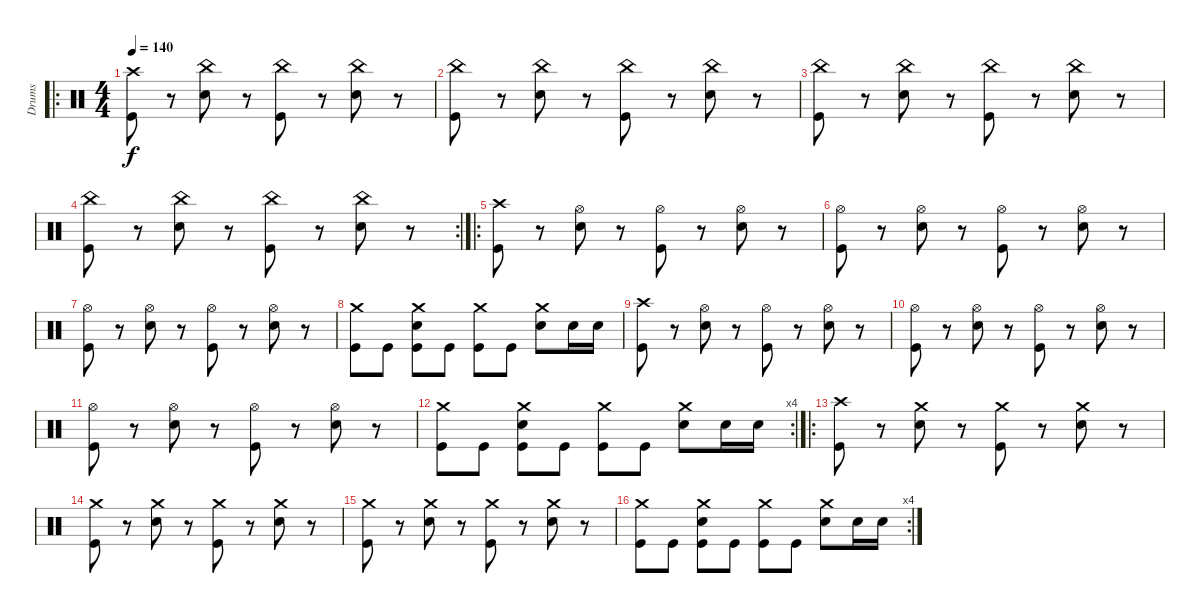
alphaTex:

\track ("Drums" "Drums") {instrument percussion}
\staff {score}
\articulation defaults
\ro
\ts (4 4)
\tempo 140
\clef neutral
\ks c
("Crash high (hit)" "Kick (hit)").8{dy f} r.8 ("China (hit)" "Snare (hit) 2").8 r.8 ("China (hit)" "Kick (hit)").8 r.8 ("China (hit)" "Snare (hit) 2").8 r.8 |
("China (hit)" "Kick (hit)").8 r.8 ("China (hit)" "Snare (hit) 2").8 r.8 ("China (hit)" "Kick (hit)").8 r.8 ("China (hit)" "Snare (hit) 2").8 r.8 |
("China (hit)" "Kick (hit)").8 r.8 ("China (hit)" "Snare (hit) 2").8 r.8 ("China (hit)" "Kick (hit)").8 r.8 ("China (hit)" "Snare (hit) 2").8 r.8 |
\rc 2
("China (hit)" "Kick (hit)").8 r.8 ("China (hit)" "Snare (hit) 2").8 r.8 ("China (hit)" "Kick (hit)").8 r.8 ("China (hit)" "Snare (hit) 2").8 r.8 |
\ro
("Crash high (hit)" "Kick (hit)").8 r.8 ("Hi-Hat (open)" "Snare (hit) 2").8 r.8 ("Hi-Hat (open)" "Kick (hit)").8 r.8 ("Hi-Hat (open)" "Snare (hit) 2").8 r.8 |
("Hi-Hat (open)" "Kick (hit)").8 r.8 ("Hi-Hat (open)" "Snare (hit) 2").8 r.8 ("Hi-Hat (open)" "Kick (hit)").8 r.8 ("Hi-Hat (open)" "Snare (hit) 2").8 r.8 |
("Hi-Hat (open)" "Kick (hit)").8 r.8 ("Hi-Hat (open)" "Snare (hit) 2").8 r.8 ("Hi-Hat (open)" "Kick (hit)").8 r.8 ("Hi-Hat (open)" "Snare (hit) 2").8 r.8 |
("Crash medium (hit)" "Kick (hit)").8 "Kick (hit)".8 ("Crash medium (hit)" "Snare (hit) 2" "Kick (hit)").8 "Kick (hit)".8 ("Crash medium (hit)" "Kick (hit)").8 "Kick (hit)".8 ("Crash medium (hit)" "Snare (hit) 2").8 "Snare (hit) 2".16 "Snare (hit) 2".16 |
("Crash high (hit)" "Kick (hit)").8 r.8 ("Hi-Hat (open)" "Snare (hit) 2").8 r.8 ("Hi-Hat (open)" "Kick (hit)").8 r.8 ("Hi-Hat (open)" "Snare (hit) 2").8 r.8 |
("Hi-Hat (open)" "Kick (hit)").8 r.8 ("Hi-Hat (open)" "Snare (hit) 2").8 r.8 ("Hi-Hat (open)" "Kick (hit)").8 r.8 ("Hi-Hat (open)" "Snare (hit) 2").8 r.8 |
("Hi-Hat (open)" "Kick (hit)").8 r.8 ("Hi-Hat (open)" "Snare (hit) 2").8 r.8 ("Hi-Hat (open)" "Kick (hit)").8 r.8 ("Hi-Hat (open)" "Snare (hit) 2").8 r.8 |
\rc 4
("Crash medium (hit)" "Kick (hit)").8 "Kick (hit)".8 ("Crash medium (hit)" "Snare (hit) 2" "Kick (hit)").8 "Kick (hit)".8 ("Crash medium (hit)" "Kick (hit)").8 "Kick (hit)".8 ("Crash medium (hit)" "Snare (hit) 2").8 "Snare (hit) 2".16 "Snare (hit) 2".16 |
\ro
("Crash high (hit)" "Kick (hit)").8 r.8 ("Crash medium (hit)" "Snare (hit) 2").8 r.8 ("Crash medium (hit)" "Kick (hit)").8 r.8 ("Crash medium (hit)" "Snare (hit) 2").8 r.8 |
("Crash medium (hit)" "Kick (hit)").8 r.8 ("Crash medium (hit)" "Snare (hit) 2").8 r.8 ("Crash medium (hit)" "Kick (hit)").8 r.8 ("Crash medium (hit)" "Snare (hit) 2").8 r.8 |
("Crash medium (hit)" "Kick (hit)").8 r.8 ("Crash medium (hit)" "Snare (hit) 2").8 r.8 ("Crash medium (hit)" "Kick (hit)").8 r.8 ("Crash medium (hit)" "Snare (hit) 2").8 r.8 |
\rc 4
("Crash medium (hit)" "Kick (hit)").8 "Kick (hit)".8 ("Crash medium (hit)" "Snare (hit) 2" "Kick (hit)").8 "Kick (hit)".8 ("Crash medium (hit)" "Kick (hit)").8 "Kick (hit)".8 ("Crash medium (hit)" "Snare (hit) 2").8 "Snare (hit) 2".16 "Snare (hit) 2".16
